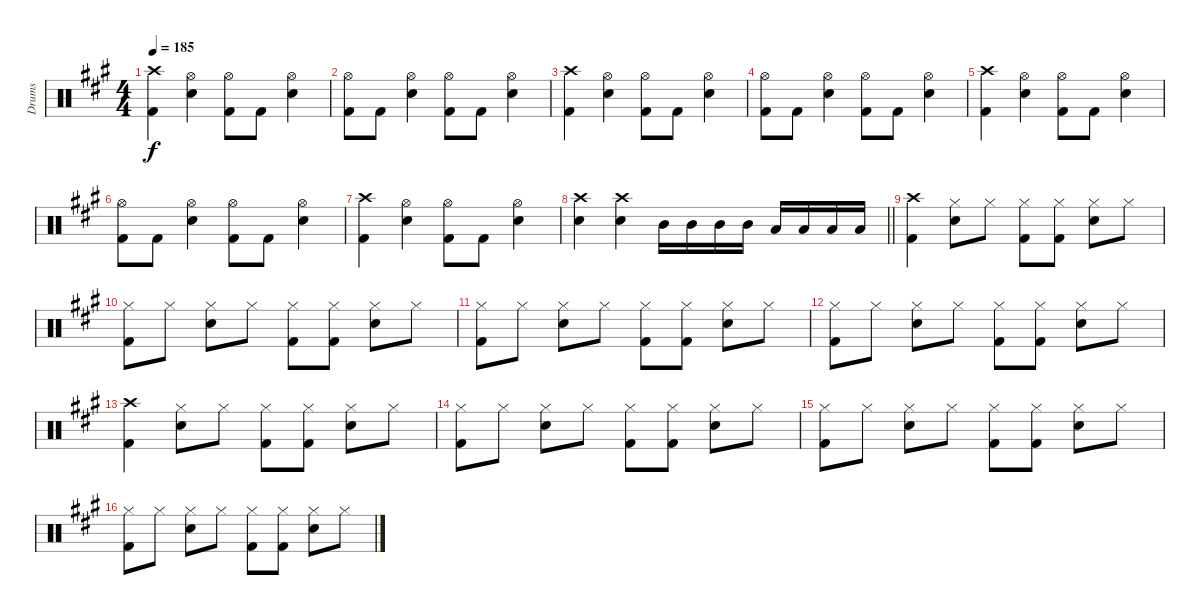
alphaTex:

\track ("Drums" "Drums") {instrument percussion}
\staff {score}
\articulation defaults
\ts (4 4)
\tempo 185
\clef neutral
\ks f#minor
("Crash high (hit)" "Kick (hit) 2").4{dy f} ("Hi-Hat (open)" "Electric Snare (hit)").4 ("Hi-Hat (open)" "Kick (hit) 2").8 "Kick (hit) 2".8 ("Hi-Hat (open)" "Electric Snare (hit)").4 |
("Hi-Hat (open)" "Kick (hit) 2").8 "Kick (hit) 2".8 ("Hi-Hat (open)" "Electric Snare (hit)").4 ("Hi-Hat (open)" "Kick (hit) 2").8 "Kick (hit) 2".8 ("Hi-Hat (open)" "Electric Snare (hit)").4 |
("Crash high (hit)" "Kick (hit) 2").4 ("Hi-Hat (open)" "Electric Snare (hit)").4 ("Hi-Hat (open)" "Kick (hit) 2").8 "Kick (hit) 2".8 ("Hi-Hat (open)" "Electric Snare (hit)").4 |
("Hi-Hat (open)" "Kick (hit) 2").8 "Kick (hit) 2".8 ("Hi-Hat (open)" "Electric Snare (hit)").4 ("Hi-Hat (open)" "Kick (hit) 2").8 "Kick (hit) 2".8 ("Hi-Hat (open)" "Electric Snare (hit)").4 |
("Crash high (hit)" "Kick (hit) 2").4 ("Hi-Hat (open)" "Electric Snare (hit)").4 ("Hi-Hat (open)" "Kick (hit) 2").8 "Kick (hit) 2".8 ("Hi-Hat (open)" "Electric Snare (hit)").4 |
("Hi-Hat (open)" "Kick (hit) 2").8 "Kick (hit) 2".8 ("Hi-Hat (open)" "Electric Snare (hit)").4 ("Hi-Hat (open)" "Kick (hit) 2").8 "Kick (hit) 2".8 ("Hi-Hat (open)" "Electric Snare (hit)").4 |
("Crash high (hit)" "Kick (hit) 2").4 ("Hi-Hat (open)" "Electric Snare (hit)").4 ("Hi-Hat (open)" "Kick (hit) 2").8 "Kick (hit) 2".8 ("Hi-Hat (open)" "Electric Snare (hit)").4 |
\barLineRight lightlight
("Crash high (hit)" "Electric Snare (hit)").4 ("Crash high (hit)" "Electric Snare (hit)").4 "Mid Tom (hit)".16 "Mid Tom (hit)".16 "Mid Tom (hit)".16 "Mid Tom (hit)".16 "Low Tom (hit)".16 "Low Tom (hit)".16 "Low Tom (hit)".16 "Low Tom (hit)".16 |
("Crash high (hit)" "Kick (hit) 2").4 ("Hi-Hat (closed)" "Electric Snare (hit)").8 "Hi-Hat (closed)".8 ("Hi-Hat (closed)" "Kick (hit) 2").8 ("Hi-Hat (closed)" "Kick (hit) 2").8 ("Hi-Hat (closed)" "Electric Snare (hit)").8 "Hi-Hat (closed)".8 |
("Hi-Hat (closed)" "Kick (hit) 2").8 "Hi-Hat (closed)".8 ("Hi-Hat (closed)" "Electric Snare (hit)").8 "Hi-Hat (closed)".8 ("Hi-Hat (closed)" "Kick (hit) 2").8 ("Hi-Hat (closed)" "Kick (hit) 2").8 ("Hi-Hat (closed)" "Electric Snare (hit)").8 "Hi-Hat (closed)".8 |
("Hi-Hat (closed)" "Kick (hit) 2").8 "Hi-Hat (closed)".8 ("Hi-Hat (closed)" "Electric Snare (hit)").8 "Hi-Hat (closed)".8 ("Hi-Hat (closed)" "Kick (hit) 2").8 ("Hi-Hat (closed)" "Kick (hit) 2").8 ("Hi-Hat (closed)" "Electric Snare (hit)").8 "Hi-Hat (closed)".8 |
("Hi-Hat (closed)" "Kick (hit) 2").8 "Hi-Hat (closed)".8 ("Hi-Hat (closed)" "Electric Snare (hit)").8 "Hi-Hat (closed)".8 ("Hi-Hat (closed)" "Kick (hit) 2").8 ("Hi-Hat (closed)" "Kick (hit) 2").8 ("Hi-Hat (closed)" "Electric Snare (hit)").8 "Hi-Hat (closed)".8 |
("Crash high (hit)" "Kick (hit) 2").4 ("Hi-Hat (closed)" "Electric Snare (hit)").8 "Hi-Hat (closed)".8 ("Hi-Hat (closed)" "Kick (hit) 2").8 ("Hi-Hat (closed)" "Kick (hit) 2").8 ("Hi-Hat (closed)" "Electric Snare (hit)").8 "Hi-Hat (closed)".8 |
("Hi-Hat (closed)" "Kick (hit) 2").8 "Hi-Hat (closed)".8 ("Hi-Hat (closed)" "Electric Snare (hit)").8 "Hi-Hat (closed)".8 ("Hi-Hat (closed)" "Kick (hit) 2").8 ("Hi-Hat (closed)" "Kick (hit) 2").8 ("Hi-Hat (closed)" "Electric Snare (hit)").8 "Hi-Hat (closed)".8 |
("Hi-Hat (closed)" "Kick (hit) 2").8 "Hi-Hat (closed)".8 ("Hi-Hat (closed)" "Electric Snare (hit)").8 "Hi-Hat (closed)".8 ("Hi-Hat (closed)" "Kick (hit) 2").8 ("Hi-Hat (closed)" "Kick (hit) 2").8 ("Hi-Hat (closed)" "Electric Snare (hit)").8 "Hi-Hat (closed)".8 |
("Hi-Hat (closed)" "Kick (hit) 2").8 "Hi-Hat (closed)".8 ("Hi-Hat (closed)" "Electric Snare (hit)").8 "Hi-Hat (closed)".8 ("Hi-Hat (closed)" "Kick (hit) 2").8 ("Hi-Hat (closed)" "Kick (hit) 2").8 ("Hi-Hat (closed)" "Electric Snare (hit)").8 "Hi-Hat (closed)".8
